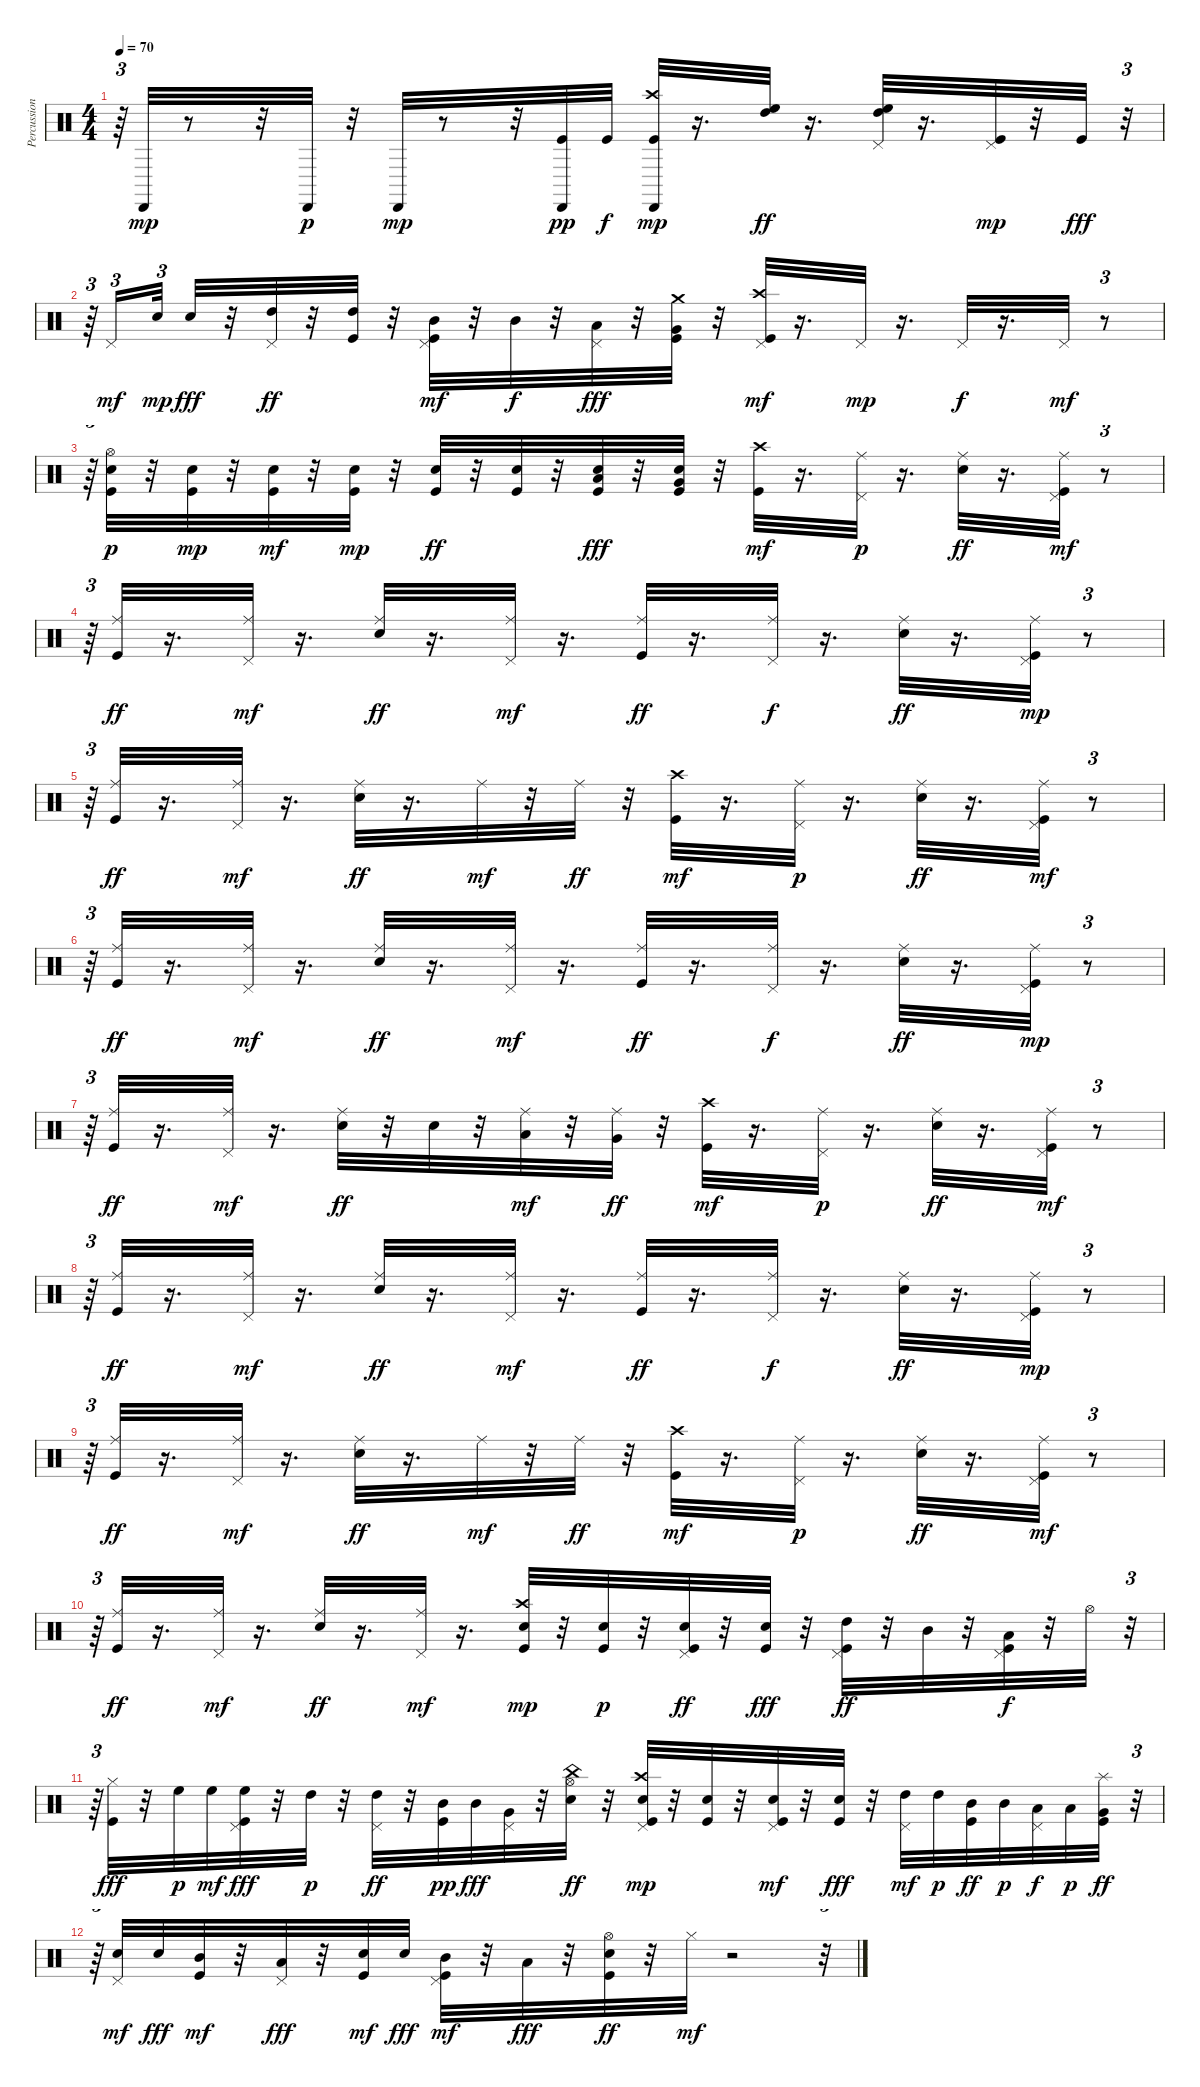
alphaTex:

\track ("Percussioni" "Percussion") {instrument percussion}
\staff {score}
\articulation defaults
\ts (4 4)
\tempo 70
\clef neutral
\ks c
r.64{tu (3 2) dy pp} "Cabasa (hit)".32{dy mp} r.8 r.32 "Cabasa (hit)".32{dy p} r.32 "Cabasa (hit)".32{dy mp} r.8 r.32 ("Kick (hit)" "Cabasa (hit)").32{dy pp} "Kick (hit)".32{dy f} ("Kick (hit)" "Crash high (hit)" "Cabasa (hit)").32{dy mp} r.16{d} ("High Tom (hit)" "High Floor Tom (hit)").32{dy ff} r.16{d} ("Pedal Hi-Hat (hit)" "High Tom (hit)" "High Floor Tom (hit)").32 r.16{d} ("Kick (hit)" "Pedal Hi-Hat (hit)").32{dy mp} r.32 "Kick (hit)".32{dy fff} r.32{tu (3 2)} |
r.64{tu (3 2)} "Pedal Hi-Hat (hit)".16{tu (3 2) dy mf} "Electric Snare (hit)".32{tu (3 2) dy mp} "Electric Snare (hit)".32{dy fff} r.32 ("Pedal Hi-Hat (hit)" "High Tom (hit)").32{dy ff} r.32 ("Kick (hit)" "High Tom (hit)").32 r.32 ("Kick (hit)" "Pedal Hi-Hat (hit)" "Mid Tom (hit)").32{dy mf} r.32 "Mid Tom (hit)".32{dy f} r.32 ("Pedal Hi-Hat (hit)" "Low Tom (hit)").32{dy fff} r.32 ("Kick (hit)" "Very Low Tom (hit)" "Crash medium (hit)").32 r.32 ("Kick (hit)" "Pedal Hi-Hat (hit)" "Crash high (hit)").32{dy mf} r.16{d} "Pedal Hi-Hat (hit)".32{dy mp} r.16{d} "Pedal Hi-Hat (hit)".32{dy f} r.16{d} "Pedal Hi-Hat (hit)".32{dy mf} r.8{tu (3 2)} |
r.64{tu (3 2)} ("Kick (hit)" "Electric Snare (hit)" "Hi-Hat (open)").32{dy p} r.32 ("Kick (hit)" "Electric Snare (hit)").32{dy mp} r.32 ("Kick (hit)" "Electric Snare (hit)").32{dy mf} r.32 ("Kick (hit)" "Electric Snare (hit)").32{dy mp} r.32 ("Kick (hit)" "Electric Snare (hit)").32{dy ff} r.32 ("Kick (hit)" "Electric Snare (hit)").32 r.32 ("Kick (hit)" "Electric Snare (hit)" "Low Tom (hit)").32{dy fff} r.32 ("Kick (hit)" "Electric Snare (hit)" "Very Low Tom (hit)").32 r.32 ("Kick (hit)" "Crash high (hit)").32{dy mf} r.16{d} ("Pedal Hi-Hat (hit)" "Ride (middle)").32{dy p} r.16{d} ("Electric Snare (hit)" "Ride (middle)").32{dy ff} r.16{d} ("Kick (hit)" "Pedal Hi-Hat (hit)" "Ride (middle)").32{dy mf} r.8{tu (3 2)} |
r.64{tu (3 2)} ("Kick (hit)" "Ride (middle)").32{dy ff} r.16{d} ("Pedal Hi-Hat (hit)" "Ride (middle)").32{dy mf} r.16{d} ("Electric Snare (hit)" "Ride (middle)").32{dy ff} r.16{d} ("Pedal Hi-Hat (hit)" "Ride (middle)").32{dy mf} r.16{d} ("Kick (hit)" "Ride (middle)").32{dy ff} r.16{d} ("Pedal Hi-Hat (hit)" "Ride (middle)").32{dy f} r.16{d} ("Electric Snare (hit)" "Ride (middle)").32{dy ff} r.16{d} ("Kick (hit)" "Pedal Hi-Hat (hit)" "Ride (middle)").32{dy mp} r.8{tu (3 2)} |
r.64{tu (3 2)} ("Kick (hit)" "Ride (middle)").32{dy ff} r.16{d} ("Pedal Hi-Hat (hit)" "Ride (middle)").32{dy mf} r.16{d} ("Electric Snare (hit)" "Ride (middle)").32{dy ff} r.16{d} "Ride (middle)".32{dy mf} r.32 "Ride (middle)".32{dy ff} r.32 ("Kick (hit)" "Crash high (hit)").32{dy mf} r.16{d} ("Pedal Hi-Hat (hit)" "Ride (middle)").32{dy p} r.16{d} ("Electric Snare (hit)" "Ride (middle)").32{dy ff} r.16{d} ("Kick (hit)" "Pedal Hi-Hat (hit)" "Ride (middle)").32{dy mf} r.8{tu (3 2)} |
r.64{tu (3 2)} ("Kick (hit)" "Ride (middle)").32{dy ff} r.16{d} ("Pedal Hi-Hat (hit)" "Ride (middle)").32{dy mf} r.16{d} ("Electric Snare (hit)" "Ride (middle)").32{dy ff} r.16{d} ("Pedal Hi-Hat (hit)" "Ride (middle)").32{dy mf} r.16{d} ("Kick (hit)" "Ride (middle)").32{dy ff} r.16{d} ("Pedal Hi-Hat (hit)" "Ride (middle)").32{dy f} r.16{d} ("Electric Snare (hit)" "Ride (middle)").32{dy ff} r.16{d} ("Kick (hit)" "Pedal Hi-Hat (hit)" "Ride (middle)").32{dy mp} r.8{tu (3 2)} |
r.64{tu (3 2)} ("Kick (hit)" "Ride (middle)").32{dy ff} r.16{d} ("Pedal Hi-Hat (hit)" "Ride (middle)").32{dy mf} r.16{d} ("Electric Snare (hit)" "Ride (middle)").32{dy ff} r.32 "Electric Snare (hit)".32 r.32 ("Low Tom (hit)" "Ride (middle)").32{dy mf} r.32 ("Very Low Tom (hit)" "Ride (middle)").32{dy ff} r.32 ("Kick (hit)" "Crash high (hit)").32{dy mf} r.16{d} ("Pedal Hi-Hat (hit)" "Ride (middle)").32{dy p} r.16{d} ("Electric Snare (hit)" "Ride (middle)").32{dy ff} r.16{d} ("Kick (hit)" "Pedal Hi-Hat (hit)" "Ride (middle)").32{dy mf} r.8{tu (3 2)} |
r.64{tu (3 2)} ("Kick (hit)" "Ride (middle)").32{dy ff} r.16{d} ("Pedal Hi-Hat (hit)" "Ride (middle)").32{dy mf} r.16{d} ("Electric Snare (hit)" "Ride (middle)").32{dy ff} r.16{d} ("Pedal Hi-Hat (hit)" "Ride (middle)").32{dy mf} r.16{d} ("Kick (hit)" "Ride (middle)").32{dy ff} r.16{d} ("Pedal Hi-Hat (hit)" "Ride (middle)").32{dy f} r.16{d} ("Electric Snare (hit)" "Ride (middle)").32{dy ff} r.16{d} ("Kick (hit)" "Pedal Hi-Hat (hit)" "Ride (middle)").32{dy mp} r.8{tu (3 2)} |
r.64{tu (3 2)} ("Kick (hit)" "Ride (middle)").32{dy ff} r.16{d} ("Pedal Hi-Hat (hit)" "Ride (middle)").32{dy mf} r.16{d} ("Electric Snare (hit)" "Ride (middle)").32{dy ff} r.16{d} "Ride (middle)".32{dy mf} r.32 "Ride (middle)".32{dy ff} r.32 ("Kick (hit)" "Crash high (hit)").32{dy mf} r.16{d} ("Pedal Hi-Hat (hit)" "Ride (middle)").32{dy p} r.16{d} ("Electric Snare (hit)" "Ride (middle)").32{dy ff} r.16{d} ("Kick (hit)" "Pedal Hi-Hat (hit)" "Ride (middle)").32{dy mf} r.8{tu (3 2)} |
r.64{tu (3 2)} ("Kick (hit)" "Ride (middle)").32{dy ff} r.16{d} ("Pedal Hi-Hat (hit)" "Ride (middle)").32{dy mf} r.16{d} ("Electric Snare (hit)" "Ride (middle)").32{dy ff} r.16{d} ("Pedal Hi-Hat (hit)" "Ride (middle)").32{dy mf} r.16{d} ("Kick (hit)" "Electric Snare (hit)" "Crash high (hit)").32{dy mp} r.32 ("Kick (hit)" "Electric Snare (hit)").32{dy p} r.32 ("Kick (hit)" "Electric Snare (hit)" "Pedal Hi-Hat (hit)").32{dy ff} r.32 ("Kick (hit)" "Electric Snare (hit)").32{dy fff} r.32 ("Kick (hit)" "Pedal Hi-Hat (hit)" "High Tom (hit)").32{dy ff} r.32 "Mid Tom (hit)".32 r.32 ("Kick (hit)" "Pedal Hi-Hat (hit)" "Low Tom (hit)").32{dy f} r.32 "Hi-Hat (open)".32 r.32{tu (3 2)} |
r.64{tu (3 2)} ("Kick (hit)" "Hi-Hat (closed)").32{dy fff} r.32 "High Floor Tom (hit)".32{dy p} "High Floor Tom (hit)".32{dy mf} ("Kick (hit)" "Pedal Hi-Hat (hit)" "High Floor Tom (hit)").32{dy fff} r.32 "High Tom (hit)".32{dy p} r.32 ("Pedal Hi-Hat (hit)" "High Tom (hit)").32{dy ff} r.32 ("Kick (hit)" "Mid Tom (hit)").32{dy pp} "Mid Tom (hit)".32{dy fff} ("Very Low Tom (hit)" "Pedal Hi-Hat (hit)").32 r.32 ("Electric Snare (hit)" "Hi-Hat (open)" "China (hit)").32{dy ff} r.32 ("Kick (hit)" "Electric Snare (hit)" "Pedal Hi-Hat (hit)" "Crash high (hit)").32{dy mp} r.32 ("Kick (hit)" "Electric Snare (hit)").32 r.32 ("Kick (hit)" "Electric Snare (hit)" "Pedal Hi-Hat (hit)").32{dy mf} r.32 ("Kick (hit)" "Electric Snare (hit)").32{dy fff} r.32 ("Pedal Hi-Hat (hit)" "High Tom (hit)").32{dy mf} "High Tom (hit)".32{dy p} ("Kick (hit)" "Mid Tom (hit)").32{dy ff} "Mid Tom (hit)".32{dy p} ("Pedal Hi-Hat (hit)" "Low Tom (hit)").32{dy f} "Low Tom (hit)".32{dy p} ("Kick (hit)" "Very Low Tom (hit)" "Splash (hit)").32{dy ff} r.32{tu (3 2)} |
r.64{tu (3 2)} ("Electric Snare (hit)" "Pedal Hi-Hat (hit)").32{dy mf} "Electric Snare (hit)".32{dy fff} ("Kick (hit)" "Mid Tom (hit)").32{dy mf} r.32 ("Pedal Hi-Hat (hit)" "Low Tom (hit)").32{dy fff} r.32 ("Kick (hit)" "Electric Snare (hit)").32{dy mf} "Electric Snare (hit)".32{dy fff} ("Kick (hit)" "Pedal Hi-Hat (hit)" "Mid Tom (hit)").32{dy mf} r.32 "Low Tom (hit)".32{dy fff} r.32 ("Kick (hit)" "Electric Snare (hit)" "Hi-Hat (open)").32{dy ff} r.32 "Hi-Hat (closed)".32{dy mf} r.2 r.32{tu (3 2)}
